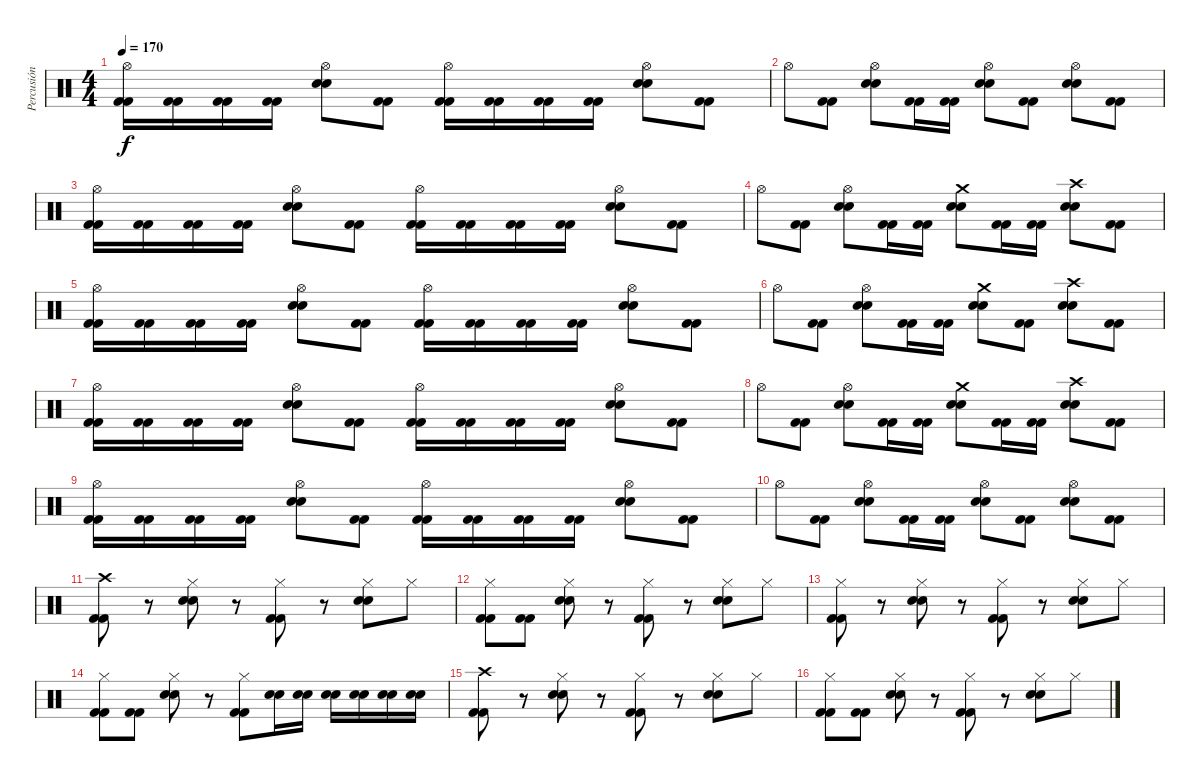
\track ("Percusión" "Percusión") {instrument percussion}
\staff {score}
\articulation defaults
\ts (4 4)
\tempo 170
\clef neutral
\ks c
("Hi-Hat (open)" "Kick (hit) 2" "Kick (hit) 2").16{dy f} ("Kick (hit) 2" "Kick (hit) 2").16 ("Kick (hit) 2" "Kick (hit) 2").16 ("Kick (hit) 2" "Kick (hit) 2").16 ("Hi-Hat (open)" "Electric Snare (hit)" "Electric Snare (hit)").8 ("Kick (hit) 2" "Kick (hit) 2").8 ("Hi-Hat (open)" "Kick (hit) 2" "Kick (hit) 2").16 ("Kick (hit) 2" "Kick (hit) 2").16 ("Kick (hit) 2" "Kick (hit) 2").16 ("Kick (hit) 2" "Kick (hit) 2").16 ("Hi-Hat (open)" "Electric Snare (hit)" "Electric Snare (hit)").8 ("Kick (hit) 2" "Kick (hit) 2").8 |
"Hi-Hat (open)".8 ("Kick (hit) 2" "Kick (hit) 2").8 ("Hi-Hat (open)" "Electric Snare (hit)" "Electric Snare (hit)").8 ("Kick (hit) 2" "Kick (hit) 2").16 ("Kick (hit) 2" "Kick (hit) 2").16 ("Hi-Hat (open)" "Electric Snare (hit)" "Electric Snare (hit)").8 ("Kick (hit) 2" "Kick (hit) 2").8 ("Hi-Hat (open)" "Electric Snare (hit)" "Electric Snare (hit)").8 ("Kick (hit) 2" "Kick (hit) 2").8 |
("Hi-Hat (open)" "Kick (hit) 2" "Kick (hit) 2").16 ("Kick (hit) 2" "Kick (hit) 2").16 ("Kick (hit) 2" "Kick (hit) 2").16 ("Kick (hit) 2" "Kick (hit) 2").16 ("Hi-Hat (open)" "Electric Snare (hit)" "Electric Snare (hit)").8 ("Kick (hit) 2" "Kick (hit) 2").8 ("Hi-Hat (open)" "Kick (hit) 2" "Kick (hit) 2").16 ("Kick (hit) 2" "Kick (hit) 2").16 ("Kick (hit) 2" "Kick (hit) 2").16 ("Kick (hit) 2" "Kick (hit) 2").16 ("Hi-Hat (open)" "Electric Snare (hit)" "Electric Snare (hit)").8 ("Kick (hit) 2" "Kick (hit) 2").8 |
"Hi-Hat (open)".8 ("Kick (hit) 2" "Kick (hit) 2").8 ("Hi-Hat (open)" "Electric Snare (hit)" "Electric Snare (hit)").8 ("Kick (hit) 2" "Kick (hit) 2").16 ("Kick (hit) 2" "Kick (hit) 2").16 ("Crash medium (hit)" "Electric Snare (hit)" "Electric Snare (hit)").8 ("Kick (hit) 2" "Kick (hit) 2").16 ("Kick (hit) 2" "Kick (hit) 2").16 ("Crash high (hit)" "Electric Snare (hit)" "Electric Snare (hit)").8 ("Kick (hit) 2" "Kick (hit) 2").8 |
("Hi-Hat (open)" "Kick (hit) 2" "Kick (hit) 2").16 ("Kick (hit) 2" "Kick (hit) 2").16 ("Kick (hit) 2" "Kick (hit) 2").16 ("Kick (hit) 2" "Kick (hit) 2").16 ("Hi-Hat (open)" "Electric Snare (hit)" "Electric Snare (hit)").8 ("Kick (hit) 2" "Kick (hit) 2").8 ("Hi-Hat (open)" "Kick (hit) 2" "Kick (hit) 2").16 ("Kick (hit) 2" "Kick (hit) 2").16 ("Kick (hit) 2" "Kick (hit) 2").16 ("Kick (hit) 2" "Kick (hit) 2").16 ("Hi-Hat (open)" "Electric Snare (hit)" "Electric Snare (hit)").8 ("Kick (hit) 2" "Kick (hit) 2").8 |
"Hi-Hat (open)".8 ("Kick (hit) 2" "Kick (hit) 2").8 ("Hi-Hat (open)" "Electric Snare (hit)" "Electric Snare (hit)").8 ("Kick (hit) 2" "Kick (hit) 2").16 ("Kick (hit) 2" "Kick (hit) 2").16 ("Crash medium (hit)" "Electric Snare (hit)" "Electric Snare (hit)").8 ("Kick (hit) 2" "Kick (hit) 2").8 ("Crash high (hit)" "Electric Snare (hit)" "Electric Snare (hit)").8 ("Kick (hit) 2" "Kick (hit) 2").8 |
("Hi-Hat (open)" "Kick (hit) 2" "Kick (hit) 2").16 ("Kick (hit) 2" "Kick (hit) 2").16 ("Kick (hit) 2" "Kick (hit) 2").16 ("Kick (hit) 2" "Kick (hit) 2").16 ("Hi-Hat (open)" "Electric Snare (hit)" "Electric Snare (hit)").8 ("Kick (hit) 2" "Kick (hit) 2").8 ("Hi-Hat (open)" "Kick (hit) 2" "Kick (hit) 2").16 ("Kick (hit) 2" "Kick (hit) 2").16 ("Kick (hit) 2" "Kick (hit) 2").16 ("Kick (hit) 2" "Kick (hit) 2").16 ("Hi-Hat (open)" "Electric Snare (hit)" "Electric Snare (hit)").8 ("Kick (hit) 2" "Kick (hit) 2").8 |
"Hi-Hat (open)".8 ("Kick (hit) 2" "Kick (hit) 2").8 ("Hi-Hat (open)" "Electric Snare (hit)" "Electric Snare (hit)").8 ("Kick (hit) 2" "Kick (hit) 2").16 ("Kick (hit) 2" "Kick (hit) 2").16 ("Crash medium (hit)" "Electric Snare (hit)" "Electric Snare (hit)").8 ("Kick (hit) 2" "Kick (hit) 2").16 ("Kick (hit) 2" "Kick (hit) 2").16 ("Crash high (hit)" "Electric Snare (hit)" "Electric Snare (hit)").8 ("Kick (hit) 2" "Kick (hit) 2").8 |
("Hi-Hat (open)" "Kick (hit) 2" "Kick (hit) 2").16 ("Kick (hit) 2" "Kick (hit) 2").16 ("Kick (hit) 2" "Kick (hit) 2").16 ("Kick (hit) 2" "Kick (hit) 2").16 ("Hi-Hat (open)" "Electric Snare (hit)" "Electric Snare (hit)").8 ("Kick (hit) 2" "Kick (hit) 2").8 ("Hi-Hat (open)" "Kick (hit) 2" "Kick (hit) 2").16 ("Kick (hit) 2" "Kick (hit) 2").16 ("Kick (hit) 2" "Kick (hit) 2").16 ("Kick (hit) 2" "Kick (hit) 2").16 ("Hi-Hat (open)" "Electric Snare (hit)" "Electric Snare (hit)").8 ("Kick (hit) 2" "Kick (hit) 2").8 |
"Hi-Hat (open)".8 ("Kick (hit) 2" "Kick (hit) 2").8 ("Hi-Hat (open)" "Electric Snare (hit)" "Electric Snare (hit)").8 ("Kick (hit) 2" "Kick (hit) 2").16 ("Kick (hit) 2" "Kick (hit) 2").16 ("Hi-Hat (open)" "Electric Snare (hit)" "Electric Snare (hit)").8 ("Kick (hit) 2" "Kick (hit) 2").8 ("Hi-Hat (open)" "Electric Snare (hit)" "Electric Snare (hit)").8 ("Kick (hit) 2" "Kick (hit) 2").8 |
("Crash high (hit)" "Kick (hit) 2" "Kick (hit) 2").8 r.8 ("Hi-Hat (closed)" "Electric Snare (hit)" "Electric Snare (hit)").8 r.8 ("Hi-Hat (closed)" "Kick (hit) 2" "Kick (hit) 2").8 r.8 ("Hi-Hat (closed)" "Electric Snare (hit)" "Electric Snare (hit)").8 "Hi-Hat (closed)".8 |
("Hi-Hat (closed)" "Kick (hit) 2" "Kick (hit) 2").8 ("Kick (hit) 2" "Kick (hit) 2").8 ("Hi-Hat (closed)" "Electric Snare (hit)" "Electric Snare (hit)").8 r.8 ("Hi-Hat (closed)" "Kick (hit) 2" "Kick (hit) 2").8 r.8 ("Hi-Hat (closed)" "Electric Snare (hit)" "Electric Snare (hit)").8 "Hi-Hat (closed)".8 |
("Hi-Hat (closed)" "Kick (hit) 2" "Kick (hit) 2").8 r.8 ("Hi-Hat (closed)" "Electric Snare (hit)" "Electric Snare (hit)").8 r.8 ("Hi-Hat (closed)" "Kick (hit) 2" "Kick (hit) 2").8 r.8 ("Hi-Hat (closed)" "Electric Snare (hit)" "Electric Snare (hit)").8 "Hi-Hat (closed)".8 |
("Hi-Hat (closed)" "Kick (hit) 2" "Kick (hit) 2").8 ("Kick (hit) 2" "Kick (hit) 2").8 ("Hi-Hat (closed)" "Electric Snare (hit)" "Electric Snare (hit)").8 r.8 ("Hi-Hat (closed)" "Kick (hit) 2" "Kick (hit) 2").8 ("Electric Snare (hit)" "Electric Snare (hit)").16 ("Electric Snare (hit)" "Electric Snare (hit)").16 ("Electric Snare (hit)" "Electric Snare (hit)").16 ("Electric Snare (hit)" "Electric Snare (hit)").16 ("Electric Snare (hit)" "Electric Snare (hit)").16 ("Electric Snare (hit)" "Electric Snare (hit)").16 |
("Crash high (hit)" "Kick (hit) 2" "Kick (hit) 2").8 r.8 ("Hi-Hat (closed)" "Electric Snare (hit)" "Electric Snare (hit)").8 r.8 ("Hi-Hat (closed)" "Kick (hit) 2" "Kick (hit) 2").8 r.8 ("Hi-Hat (closed)" "Electric Snare (hit)" "Electric Snare (hit)").8 "Hi-Hat (closed)".8 |
("Hi-Hat (closed)" "Kick (hit) 2" "Kick (hit) 2").8 ("Kick (hit) 2" "Kick (hit) 2").8 ("Hi-Hat (closed)" "Electric Snare (hit)" "Electric Snare (hit)").8 r.8 ("Hi-Hat (closed)" "Kick (hit) 2" "Kick (hit) 2").8 r.8 ("Hi-Hat (closed)" "Electric Snare (hit)" "Electric Snare (hit)").8 "Hi-Hat (closed)".8
